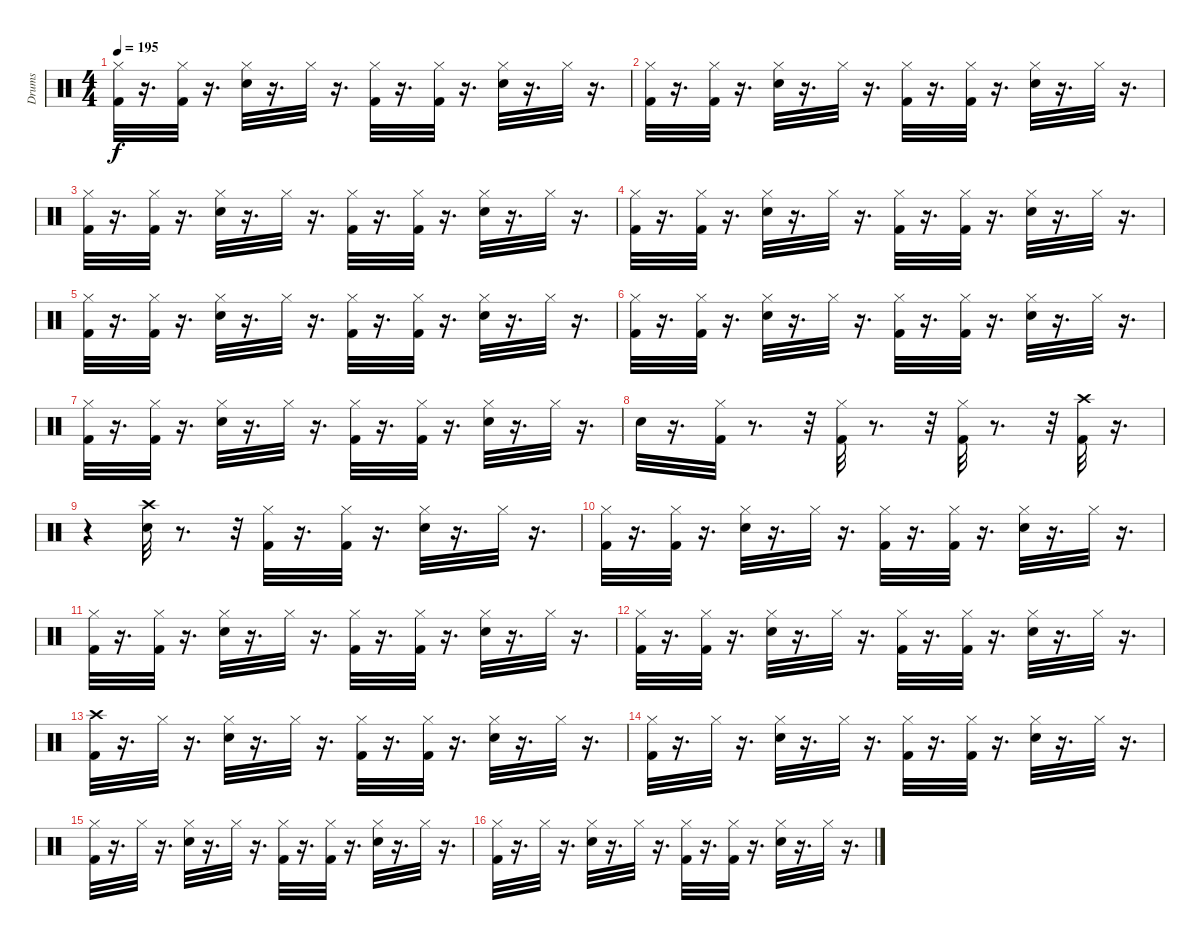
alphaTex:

\track ("Drums" "Drums") {instrument percussion}
\staff {score}
\articulation defaults
\ts (4 4)
\tempo 195
\clef neutral
\ks c
("Hi-Hat (closed)" "Kick (hit) 2").32{dy f} r.16{d} ("Hi-Hat (closed)" "Kick (hit) 2").32 r.16{d} ("Hi-Hat (closed)" "Snare (hit) 2").32 r.16{d} "Hi-Hat (closed)".32 r.16{d} ("Hi-Hat (closed)" "Kick (hit) 2").32 r.16{d} ("Hi-Hat (closed)" "Kick (hit) 2").32 r.16{d} ("Hi-Hat (closed)" "Snare (hit) 2").32 r.16{d} "Hi-Hat (closed)".32 r.16{d} |
("Hi-Hat (closed)" "Kick (hit) 2").32 r.16{d} ("Hi-Hat (closed)" "Kick (hit) 2").32 r.16{d} ("Hi-Hat (closed)" "Snare (hit) 2").32 r.16{d} "Hi-Hat (closed)".32 r.16{d} ("Hi-Hat (closed)" "Kick (hit) 2").32 r.16{d} ("Hi-Hat (closed)" "Kick (hit) 2").32 r.16{d} ("Hi-Hat (closed)" "Snare (hit) 2").32 r.16{d} "Hi-Hat (closed)".32 r.16{d} |
("Hi-Hat (closed)" "Kick (hit) 2").32 r.16{d} ("Hi-Hat (closed)" "Kick (hit) 2").32 r.16{d} ("Hi-Hat (closed)" "Snare (hit) 2").32 r.16{d} "Hi-Hat (closed)".32 r.16{d} ("Hi-Hat (closed)" "Kick (hit) 2").32 r.16{d} ("Hi-Hat (closed)" "Kick (hit) 2").32 r.16{d} ("Hi-Hat (closed)" "Snare (hit) 2").32 r.16{d} "Hi-Hat (closed)".32 r.16{d} |
("Hi-Hat (closed)" "Kick (hit) 2").32 r.16{d} ("Hi-Hat (closed)" "Kick (hit) 2").32 r.16{d} ("Hi-Hat (closed)" "Snare (hit) 2").32 r.16{d} "Hi-Hat (closed)".32 r.16{d} ("Hi-Hat (closed)" "Kick (hit) 2").32 r.16{d} ("Hi-Hat (closed)" "Kick (hit) 2").32 r.16{d} ("Hi-Hat (closed)" "Snare (hit) 2").32 r.16{d} "Hi-Hat (closed)".32 r.16{d} |
("Hi-Hat (closed)" "Kick (hit) 2").32 r.16{d} ("Hi-Hat (closed)" "Kick (hit) 2").32 r.16{d} ("Hi-Hat (closed)" "Snare (hit) 2").32 r.16{d} "Hi-Hat (closed)".32 r.16{d} ("Hi-Hat (closed)" "Kick (hit) 2").32 r.16{d} ("Hi-Hat (closed)" "Kick (hit) 2").32 r.16{d} ("Hi-Hat (closed)" "Snare (hit) 2").32 r.16{d} "Hi-Hat (closed)".32 r.16{d} |
("Hi-Hat (closed)" "Kick (hit) 2").32 r.16{d} ("Hi-Hat (closed)" "Kick (hit) 2").32 r.16{d} ("Hi-Hat (closed)" "Snare (hit) 2").32 r.16{d} "Hi-Hat (closed)".32 r.16{d} ("Hi-Hat (closed)" "Kick (hit) 2").32 r.16{d} ("Hi-Hat (closed)" "Kick (hit) 2").32 r.16{d} ("Hi-Hat (closed)" "Snare (hit) 2").32 r.16{d} "Hi-Hat (closed)".32 r.16{d} |
("Hi-Hat (closed)" "Kick (hit) 2").32 r.16{d} ("Hi-Hat (closed)" "Kick (hit) 2").32 r.16{d} ("Hi-Hat (closed)" "Snare (hit) 2").32 r.16{d} "Hi-Hat (closed)".32 r.16{d} ("Hi-Hat (closed)" "Kick (hit) 2").32 r.16{d} ("Hi-Hat (closed)" "Kick (hit) 2").32 r.16{d} ("Hi-Hat (closed)" "Snare (hit) 2").32 r.16{d} "Hi-Hat (closed)".32 r.16{d} |
"Snare (hit) 2".32 r.16{d} ("Hi-Hat (closed)" "Kick (hit) 2").32 r.8{d} r.32 ("Hi-Hat (closed)" "Kick (hit) 2").32 r.8{d} r.32 ("Hi-Hat (closed)" "Kick (hit) 2").32 r.8{d} r.32 ("Crash high (hit)" "Kick (hit) 2").32 r.16{d} |
r.4 ("Crash high (hit)" "Snare (hit) 2").32 r.8{d} r.32 ("Hi-Hat (closed)" "Kick (hit) 2").32 r.16{d} ("Hi-Hat (closed)" "Kick (hit) 2").32 r.16{d} ("Hi-Hat (closed)" "Snare (hit) 2").32 r.16{d} "Hi-Hat (closed)".32 r.16{d} |
("Hi-Hat (closed)" "Kick (hit) 2").32 r.16{d} ("Hi-Hat (closed)" "Kick (hit) 2").32 r.16{d} ("Hi-Hat (closed)" "Snare (hit) 2").32 r.16{d} "Hi-Hat (closed)".32 r.16{d} ("Hi-Hat (closed)" "Kick (hit) 2").32 r.16{d} ("Hi-Hat (closed)" "Kick (hit) 2").32 r.16{d} ("Hi-Hat (closed)" "Snare (hit) 2").32 r.16{d} "Hi-Hat (closed)".32 r.16{d} |
("Hi-Hat (closed)" "Kick (hit) 2").32 r.16{d} ("Hi-Hat (closed)" "Kick (hit) 2").32 r.16{d} ("Hi-Hat (closed)" "Snare (hit) 2").32 r.16{d} "Hi-Hat (closed)".32 r.16{d} ("Hi-Hat (closed)" "Kick (hit) 2").32 r.16{d} ("Hi-Hat (closed)" "Kick (hit) 2").32 r.16{d} ("Hi-Hat (closed)" "Snare (hit) 2").32 r.16{d} "Hi-Hat (closed)".32 r.16{d} |
("Hi-Hat (closed)" "Kick (hit) 2").32 r.16{d} ("Hi-Hat (closed)" "Kick (hit) 2").32 r.16{d} ("Hi-Hat (closed)" "Snare (hit) 2").32 r.16{d} "Hi-Hat (closed)".32 r.16{d} ("Hi-Hat (closed)" "Kick (hit) 2").32 r.16{d} ("Hi-Hat (closed)" "Kick (hit) 2").32 r.16{d} ("Hi-Hat (closed)" "Snare (hit) 2").32 r.16{d} "Hi-Hat (closed)".32 r.16{d} |
("Crash high (hit)" "Kick (hit) 2").32 r.16{d} "Hi-Hat (closed)".32 r.16{d} ("Hi-Hat (closed)" "Snare (hit) 2").32 r.16{d} "Hi-Hat (closed)".32 r.16{d} ("Hi-Hat (closed)" "Kick (hit) 2").32 r.16{d} ("Hi-Hat (closed)" "Kick (hit) 2").32 r.16{d} ("Hi-Hat (closed)" "Snare (hit) 2").32 r.16{d} "Hi-Hat (closed)".32 r.16{d} |
("Hi-Hat (closed)" "Kick (hit) 2").32 r.16{d} "Hi-Hat (closed)".32 r.16{d} ("Hi-Hat (closed)" "Snare (hit) 2").32 r.16{d} "Hi-Hat (closed)".32 r.16{d} ("Hi-Hat (closed)" "Kick (hit) 2").32 r.16{d} ("Hi-Hat (closed)" "Kick (hit) 2").32 r.16{d} ("Hi-Hat (closed)" "Snare (hit) 2").32 r.16{d} "Hi-Hat (closed)".32 r.16{d} |
("Hi-Hat (closed)" "Kick (hit) 2").32 r.16{d} "Hi-Hat (closed)".32 r.16{d} ("Hi-Hat (closed)" "Snare (hit) 2").32 r.16{d} "Hi-Hat (closed)".32 r.16{d} ("Hi-Hat (closed)" "Kick (hit) 2").32 r.16{d} ("Hi-Hat (closed)" "Kick (hit) 2").32 r.16{d} ("Hi-Hat (closed)" "Snare (hit) 2").32 r.16{d} "Hi-Hat (closed)".32 r.16{d} |
("Hi-Hat (closed)" "Kick (hit) 2").32 r.16{d} "Hi-Hat (closed)".32 r.16{d} ("Hi-Hat (closed)" "Snare (hit) 2").32 r.16{d} "Hi-Hat (closed)".32 r.16{d} ("Hi-Hat (closed)" "Kick (hit) 2").32 r.16{d} ("Hi-Hat (closed)" "Kick (hit) 2").32 r.16{d} ("Hi-Hat (closed)" "Snare (hit) 2").32 r.16{d} "Hi-Hat (closed)".32 r.16{d}
